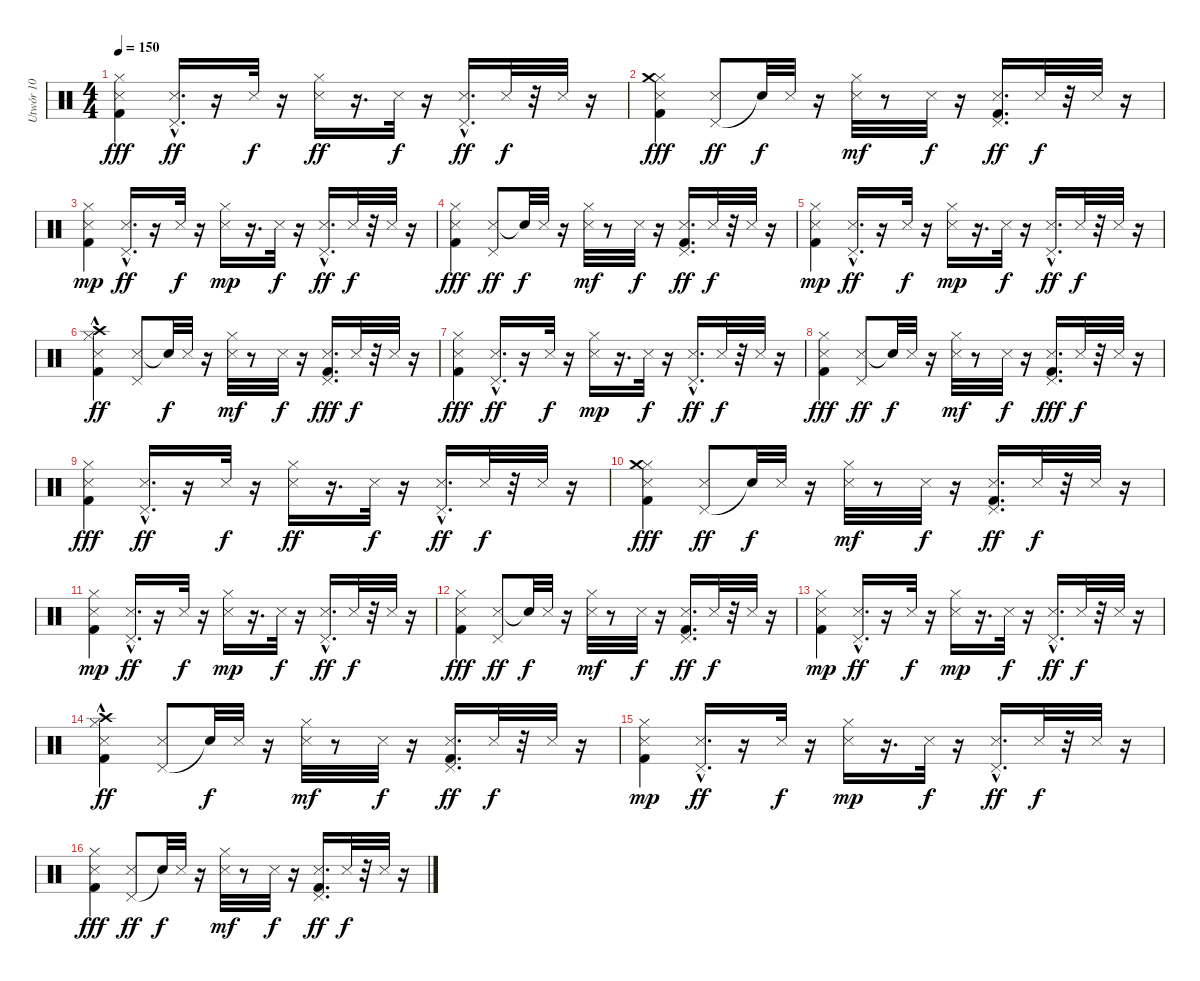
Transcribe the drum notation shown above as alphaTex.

\track ("Utwór 10" "Utwór 10") {instrument percussion}
\staff {score}
\articulation defaults
\ts (4 4)
\tempo 150
\clef neutral
\ks c
("Hi-Hat (closed)" "Kick (hit) 2" "Snare (side stick) 3").4{dy fff} ("Pedal Hi-Hat (hit)"{hac} "Snare (side stick) 3").16{d dy ff} r.16 "Snare (side stick) 3".32{dy f} r.16 ("Hi-Hat (closed)" "Snare (side stick) 3").16{dy ff} r.16{d} "Snare (side stick) 3".32{dy f} r.16 ("Snare (side stick) 3" "Pedal Hi-Hat (hit)"{hac}).16{d dy ff} "Snare (side stick) 3".32{dy f} r.32 "Snare (side stick) 3".32 r.16 |
("Kick (hit) 2" "Hi-Hat (closed)" "Snare (side stick) 3" "Crash medium (hit)").4{dy fff} ("Pedal Hi-Hat (hit)" "Snare (side stick) 3").8{dy ff} "Snare (hit)"{t}.32{dy f} "Snare (side stick) 3".32 r.16 ("Hi-Hat (closed)" "Snare (side stick) 3").32{dy mf} r.8 "Snare (side stick) 3".32{dy f} r.16 ("Snare (side stick) 3" "Kick (hit) 2" "Pedal Hi-Hat (hit)").16{d dy ff} "Snare (side stick) 3".32{dy f} r.32 "Snare (side stick) 3".32 r.16 |
("Snare (side stick) 3" "Kick (hit) 2" "Hi-Hat (closed)").4{dy mp} ("Pedal Hi-Hat (hit)"{hac} "Snare (side stick) 3").16{d dy ff} r.16 "Snare (side stick) 3".32{dy f} r.16 ("Snare (side stick) 3" "Hi-Hat (closed)").16{dy mp} r.16{d} "Snare (side stick) 3".32{dy f} r.16 ("Pedal Hi-Hat (hit)"{hac} "Snare (side stick) 3").16{d dy ff} "Snare (side stick) 3".32{dy f} r.32 "Snare (side stick) 3".32 r.16 |
("Snare (side stick) 3" "Kick (hit) 2" "Hi-Hat (closed)").4{dy fff} ("Snare (side stick) 3" "Pedal Hi-Hat (hit)").8{dy ff} "Snare (hit)"{t}.32{dy f} "Snare (side stick) 3".32 r.16 ("Snare (side stick) 3" "Hi-Hat (closed)").32{dy mf} r.8 "Snare (side stick) 3".32{dy f} r.16 ("Kick (hit) 2" "Pedal Hi-Hat (hit)" "Snare (side stick) 3").16{d dy ff} "Snare (side stick) 3".32{dy f} r.32 "Snare (side stick) 3".32 r.16 |
("Kick (hit) 2" "Hi-Hat (closed)" "Snare (side stick) 3").4{dy mp} ("Snare (side stick) 3" "Pedal Hi-Hat (hit)"{hac}).16{d dy ff} r.16 "Snare (side stick) 3".32{dy f} r.16 ("Snare (side stick) 3" "Hi-Hat (closed)").16{dy mp} r.16{d} "Snare (side stick) 3".32{dy f} r.16 ("Snare (side stick) 3" "Pedal Hi-Hat (hit)"{hac}).16{d dy ff} "Snare (side stick) 3".32{dy f} r.32 "Snare (side stick) 3".32 r.16 |
("Kick (hit) 2" "Hi-Hat (closed)" "Snare (side stick) 3" "Crash high (hit)"{hac}).4{dy ff} ("Snare (side stick) 3" "Pedal Hi-Hat (hit)").8 "Snare (hit)"{t}.32{dy f} "Snare (side stick) 3".32 r.16 ("Hi-Hat (closed)" "Snare (side stick) 3").32{dy mf} r.8 "Snare (side stick) 3".32{dy f} r.16 ("Snare (side stick) 3" "Pedal Hi-Hat (hit)" "Kick (hit) 2").16{d dy fff} "Snare (side stick) 3".32{dy f} r.32 "Snare (side stick) 3".32 r.16 |
("Snare (side stick) 3" "Hi-Hat (closed)" "Kick (hit) 2").4{dy fff} ("Snare (side stick) 3" "Pedal Hi-Hat (hit)"{hac}).16{d dy ff} r.16 "Snare (side stick) 3".32{dy f} r.16 ("Snare (side stick) 3" "Hi-Hat (closed)").16{dy mp} r.16{d} "Snare (side stick) 3".32{dy f} r.16 ("Pedal Hi-Hat (hit)"{hac} "Snare (side stick) 3").16{d dy ff} "Snare (side stick) 3".32{dy f} r.32 "Snare (side stick) 3".32 r.16 |
("Snare (side stick) 3" "Hi-Hat (closed)" "Kick (hit) 2").4{dy fff} ("Snare (side stick) 3" "Pedal Hi-Hat (hit)").8{dy ff} "Snare (hit)"{t}.32{dy f} "Snare (side stick) 3".32 r.16 ("Snare (side stick) 3" "Hi-Hat (closed)").32{dy mf} r.8 "Snare (side stick) 3".32{dy f} r.16 ("Snare (side stick) 3" "Pedal Hi-Hat (hit)" "Kick (hit) 2").16{d dy fff} "Snare (side stick) 3".32{dy f} r.32 "Snare (side stick) 3".32 r.16 |
("Hi-Hat (closed)" "Kick (hit) 2" "Snare (side stick) 3").4{dy fff} ("Pedal Hi-Hat (hit)"{hac} "Snare (side stick) 3").16{d dy ff} r.16 "Snare (side stick) 3".32{dy f} r.16 ("Hi-Hat (closed)" "Snare (side stick) 3").16{dy ff} r.16{d} "Snare (side stick) 3".32{dy f} r.16 ("Pedal Hi-Hat (hit)"{hac} "Snare (side stick) 3").16{d dy ff} "Snare (side stick) 3".32{dy f} r.32 "Snare (side stick) 3".32 r.16 |
("Kick (hit) 2" "Hi-Hat (closed)" "Crash medium (hit)" "Snare (side stick) 3").4{dy fff} ("Pedal Hi-Hat (hit)" "Snare (side stick) 3").8{dy ff} "Snare (hit)"{t}.32{dy f} "Snare (side stick) 3".32 r.16 ("Snare (side stick) 3" "Hi-Hat (closed)").32{dy mf} r.8 "Snare (side stick) 3".32{dy f} r.16 ("Snare (side stick) 3" "Kick (hit) 2" "Pedal Hi-Hat (hit)").16{d dy ff} "Snare (side stick) 3".32{dy f} r.32 "Snare (side stick) 3".32 r.16 |
("Snare (side stick) 3" "Kick (hit) 2" "Hi-Hat (closed)").4{dy mp} ("Snare (side stick) 3" "Pedal Hi-Hat (hit)"{hac}).16{d dy ff} r.16 "Snare (side stick) 3".32{dy f} r.16 ("Snare (side stick) 3" "Hi-Hat (closed)").16{dy mp} r.16{d} "Snare (side stick) 3".32{dy f} r.16 ("Snare (side stick) 3" "Pedal Hi-Hat (hit)"{hac}).16{d dy ff} "Snare (side stick) 3".32{dy f} r.32 "Snare (side stick) 3".32 r.16 |
("Kick (hit) 2" "Snare (side stick) 3" "Hi-Hat (closed)").4{dy fff} ("Snare (side stick) 3" "Pedal Hi-Hat (hit)").8{dy ff} "Snare (hit)"{t}.32{dy f} "Snare (side stick) 3".32 r.16 ("Hi-Hat (closed)" "Snare (side stick) 3").32{dy mf} r.8 "Snare (side stick) 3".32{dy f} r.16 ("Kick (hit) 2" "Snare (side stick) 3" "Pedal Hi-Hat (hit)").16{d dy ff} "Snare (side stick) 3".32{dy f} r.32 "Snare (side stick) 3".32 r.16 |
("Snare (side stick) 3" "Kick (hit) 2" "Hi-Hat (closed)").4{dy mp} ("Snare (side stick) 3" "Pedal Hi-Hat (hit)"{hac}).16{d dy ff} r.16 "Snare (side stick) 3".32{dy f} r.16 ("Snare (side stick) 3" "Hi-Hat (closed)").16{dy mp} r.16{d} "Snare (side stick) 3".32{dy f} r.16 ("Snare (side stick) 3" "Pedal Hi-Hat (hit)"{hac}).16{d dy ff} "Snare (side stick) 3".32{dy f} r.32 "Snare (side stick) 3".32 r.16 |
("Snare (side stick) 3" "Kick (hit) 2" "Crash high (hit)"{hac} "Hi-Hat (closed)").4{dy ff} ("Pedal Hi-Hat (hit)" "Snare (side stick) 3").8 "Snare (hit)"{t}.32{dy f} "Snare (side stick) 3".32 r.16 ("Hi-Hat (closed)" "Snare (side stick) 3").32{dy mf} r.8 "Snare (side stick) 3".32{dy f} r.16 ("Kick (hit) 2" "Pedal Hi-Hat (hit)" "Snare (side stick) 3").16{d dy ff} "Snare (side stick) 3".32{dy f} r.32 "Snare (side stick) 3".32 r.16 |
("Kick (hit) 2" "Snare (side stick) 3" "Hi-Hat (closed)").4{dy mp} ("Snare (side stick) 3" "Pedal Hi-Hat (hit)"{hac}).16{d dy ff} r.16 "Snare (side stick) 3".32{dy f} r.16 ("Snare (side stick) 3" "Hi-Hat (closed)").16{dy mp} r.16{d} "Snare (side stick) 3".32{dy f} r.16 ("Pedal Hi-Hat (hit)"{hac} "Snare (side stick) 3").16{d dy ff} "Snare (side stick) 3".32{dy f} r.32 "Snare (side stick) 3".32 r.16 |
("Kick (hit) 2" "Snare (side stick) 3" "Hi-Hat (closed)").4{dy fff} ("Pedal Hi-Hat (hit)" "Snare (side stick) 3").8{dy ff} "Snare (hit)"{t}.32{dy f} "Snare (side stick) 3".32 r.16 ("Hi-Hat (closed)" "Snare (side stick) 3").32{dy mf} r.8 "Snare (side stick) 3".32{dy f} r.16 ("Kick (hit) 2" "Snare (side stick) 3" "Pedal Hi-Hat (hit)").16{d dy ff} "Snare (side stick) 3".32{dy f} r.32 "Snare (side stick) 3".32 r.16
